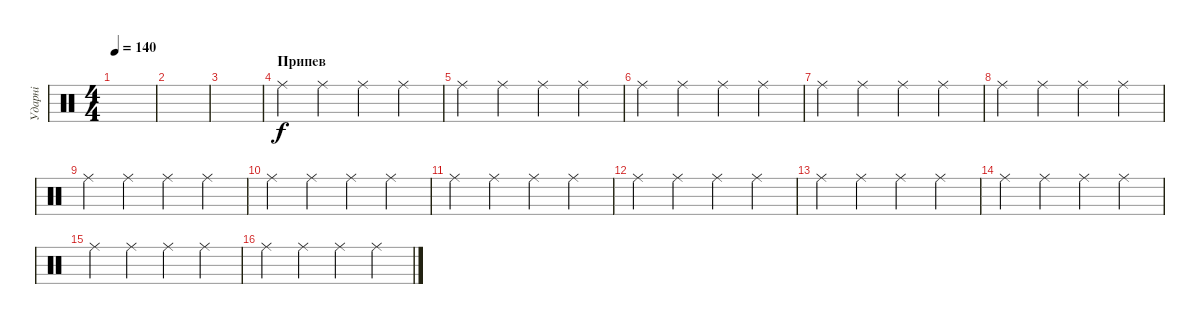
\track ("Ударні" "Ударні") {instrument percussion}
\staff {score}
\articulation defaults
\ts (4 4)
\tempo 140
\clef neutral
\ks c
|
|
|
\section ("" "Припев")
"Ride (middle)".4 "Ride (middle)".4 "Ride (middle)".4 "Ride (middle)".4 |
"Ride (middle)".4 "Ride (middle)".4 "Ride (middle)".4 "Ride (middle)".4 |
"Ride (middle)".4 "Ride (middle)".4 "Ride (middle)".4 "Ride (middle)".4 |
"Ride (middle)".4 "Ride (middle)".4 "Ride (middle)".4 "Ride (middle)".4 |
"Ride (middle)".4 "Ride (middle)".4 "Ride (middle)".4 "Ride (middle)".4 |
"Ride (middle)".4 "Ride (middle)".4 "Ride (middle)".4 "Ride (middle)".4 |
"Ride (middle)".4 "Ride (middle)".4 "Ride (middle)".4 "Ride (middle)".4 |
"Ride (middle)".4 "Ride (middle)".4 "Ride (middle)".4 "Ride (middle)".4 |
"Ride (middle)".4 "Ride (middle)".4 "Ride (middle)".4 "Ride (middle)".4 |
"Ride (middle)".4 "Ride (middle)".4 "Ride (middle)".4 "Ride (middle)".4 |
"Ride (middle)".4 "Ride (middle)".4 "Ride (middle)".4 "Ride (middle)".4 |
"Ride (middle)".4 "Ride (middle)".4 "Ride (middle)".4 "Ride (middle)".4 |
"Ride (middle)".4 "Ride (middle)".4 "Ride (middle)".4 "Ride (middle)".4
